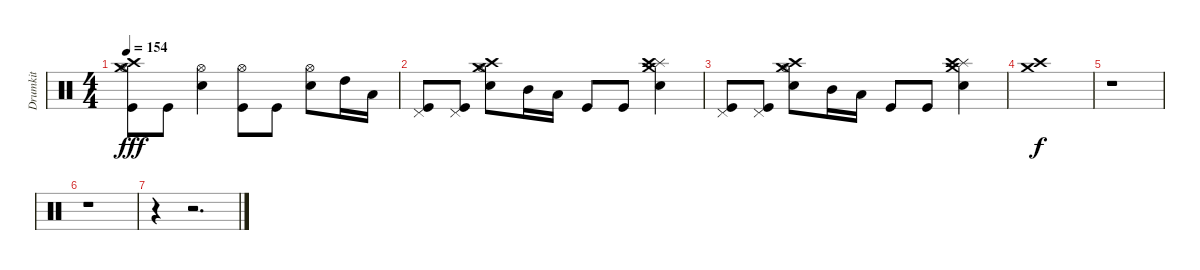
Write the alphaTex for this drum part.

\track ("Drumkit" "Drumkit") {instrument percussion}
\staff {score}
\articulation defaults
\ts (4 4)
\tempo 154
\clef neutral
\ks c
("Crash high (hit)" "Hi-Hat (open)" "Crash medium (hit)" "Kick (hit)").8{dy fff} "Kick (hit)".8 ("Hi-Hat (open)" "Snare (hit) 2").4 ("Hi-Hat (open)" "Kick (hit)").8 "Kick (hit)".8 ("Hi-Hat (open)" "Snare (hit) 2").8 "High Tom (hit)".16 "Low Tom (hit)".16 |
("Pedal Hi-Hat (hit)" "Kick (hit)").8 ("Pedal Hi-Hat (hit)" "Kick (hit)").8 ("Crash high (hit)" "Crash medium (hit)" "Hi-Hat (open)" "Snare (hit) 2").8 "Mid Tom (hit)".16 "Low Tom (hit)".16 "Kick (hit)".8 "Kick (hit)".8 ("Crash medium (hit)" "Splash (hit)" "Crash high (hit)" "Snare (hit) 2").4 |
("Pedal Hi-Hat (hit)" "Kick (hit)").8 ("Pedal Hi-Hat (hit)" "Kick (hit)").8 ("Crash high (hit)" "Crash medium (hit)" "Hi-Hat (open)" "Snare (hit) 2").8 "Mid Tom (hit)".16 "Low Tom (hit)".16 "Kick (hit)".8 "Kick (hit)".8 ("Crash medium (hit)" "Splash (hit)" "Crash high (hit)" "Snare (hit) 2").4 |
("Crash high (hit)" "Crash medium (hit)").1{dy f} |
r.1 |
r.1 |
r.4 r.2{d}
